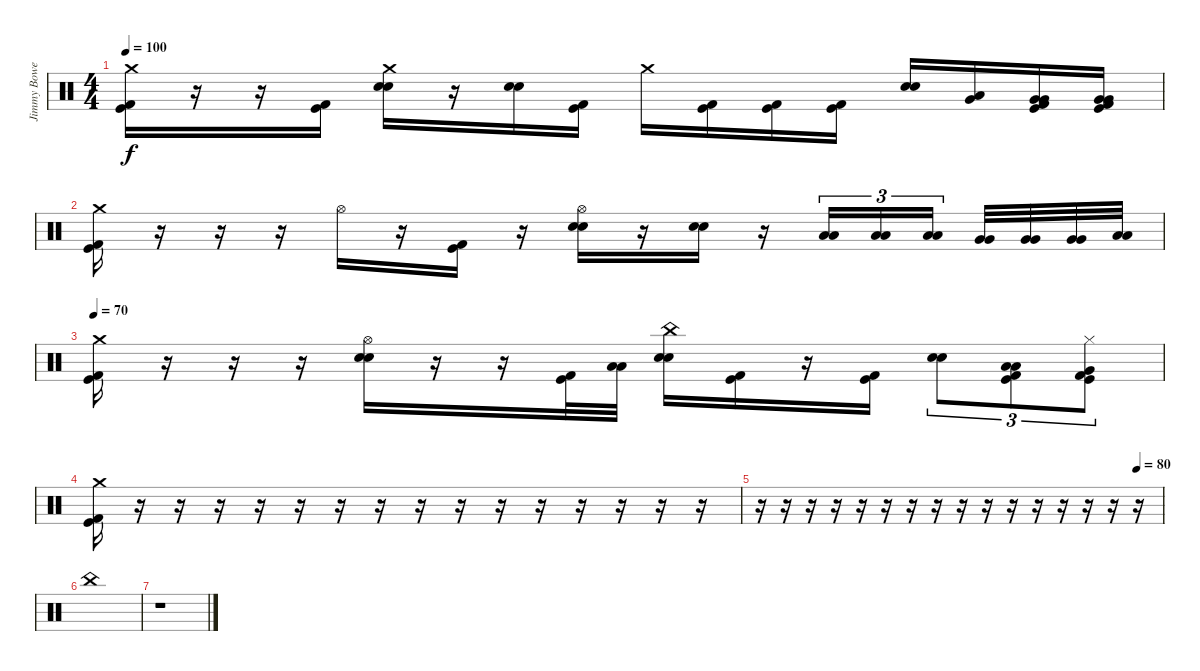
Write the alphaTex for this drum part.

\track ("Jimmy Bower" "Jimmy Bowe") {instrument percussion}
\staff {score}
\articulation defaults
\ts (4 4)
\tempo 100
\clef neutral
\ks c
("Crash medium (hit)" "Kick (hit) 2" "Kick (hit)").16{dy f} r.16 r.16 ("Kick (hit) 2" "Kick (hit)").16 ("Crash medium (hit)" "Electric Snare (hit)" "Electric Snare (hit)").16 r.16 ("Electric Snare (hit)" "Electric Snare (hit)").16 ("Kick (hit) 2" "Kick (hit)").16 "Crash medium (hit)".16 ("Kick (hit) 2" "Kick (hit)").16 ("Kick (hit) 2" "Kick (hit)").16 ("Kick (hit) 2" "Kick (hit)").16 ("Electric Snare (hit)" "Electric Snare (hit)").16 ("Low Tom (hit)" "Very Low Tom (hit)").16 ("Very Low Tom (hit)" "Very Low Tom (hit)" "Kick (hit) 2" "Kick (hit)").16 ("Very Low Tom (hit)" "Very Low Tom (hit)" "Kick (hit) 2" "Kick (hit)").16 |
("Crash medium (hit)" "Kick (hit) 2" "Kick (hit)").16 r.16 r.16 r.16 "Hi-Hat (open)".16 r.16 ("Kick (hit) 2" "Kick (hit)").16 r.16 ("Hi-Hat (open)" "Electric Snare (hit)" "Electric Snare (hit)").16 r.16 ("Electric Snare (hit)" "Electric Snare (hit)").16 r.16 ("Low Tom (hit)" "Low Tom (hit)").16{tu (3 2)} ("Low Tom (hit)" "Low Tom (hit)").16{tu (3 2)} ("Low Tom (hit)" "Low Tom (hit)").16{tu (3 2) beam splitsecondary} ("Very Low Tom (hit)" "Very Low Tom (hit)").32 ("Very Low Tom (hit)" "Very Low Tom (hit)").32 ("Very Low Tom (hit)" "Very Low Tom (hit)").32 ("Low Floor Tom (hit)" "Low Floor Tom (hit)").32 |
\tempo 70
("Crash medium (hit)" "Kick (hit) 2" "Kick (hit)").16 r.16 r.16 r.16 ("Hi-Hat (open)" "Electric Snare (hit)" "Electric Snare (hit)").16 r.16 r.16 ("Kick (hit) 2" "Kick (hit)").32 ("Low Tom (hit)" "Low Tom (hit)").32 ("China (hit)" "Electric Snare (hit)" "Electric Snare (hit)").16 ("Kick (hit) 2" "Kick (hit)").16 r.16 ("Kick (hit) 2" "Kick (hit)").16 ("Electric Snare (hit)" "Electric Snare (hit)").8{tu (3 2)} ("Low Tom (hit)" "Low Tom (hit)" "Kick (hit) 2" "Kick (hit)").8{tu (3 2)} ("Very Low Tom (hit)" "Hi-Hat (closed)" "Kick (hit) 2" "Kick (hit)").8{tu (3 2)} |
("Crash medium (hit)" "Kick (hit) 2" "Kick (hit)").16 r.16 r.16 r.16 r.16 r.16 r.16 r.16 r.16 r.16 r.16 r.16 r.16 r.16 r.16 r.16 |
\tempo (80 0.9375)
r.16 r.16 r.16 r.16 r.16 r.16 r.16 r.16 r.16 r.16 r.16 r.16 r.16 r.16 r.16 r.16 |
"China (hit)".1{volume 6} |
r.1
